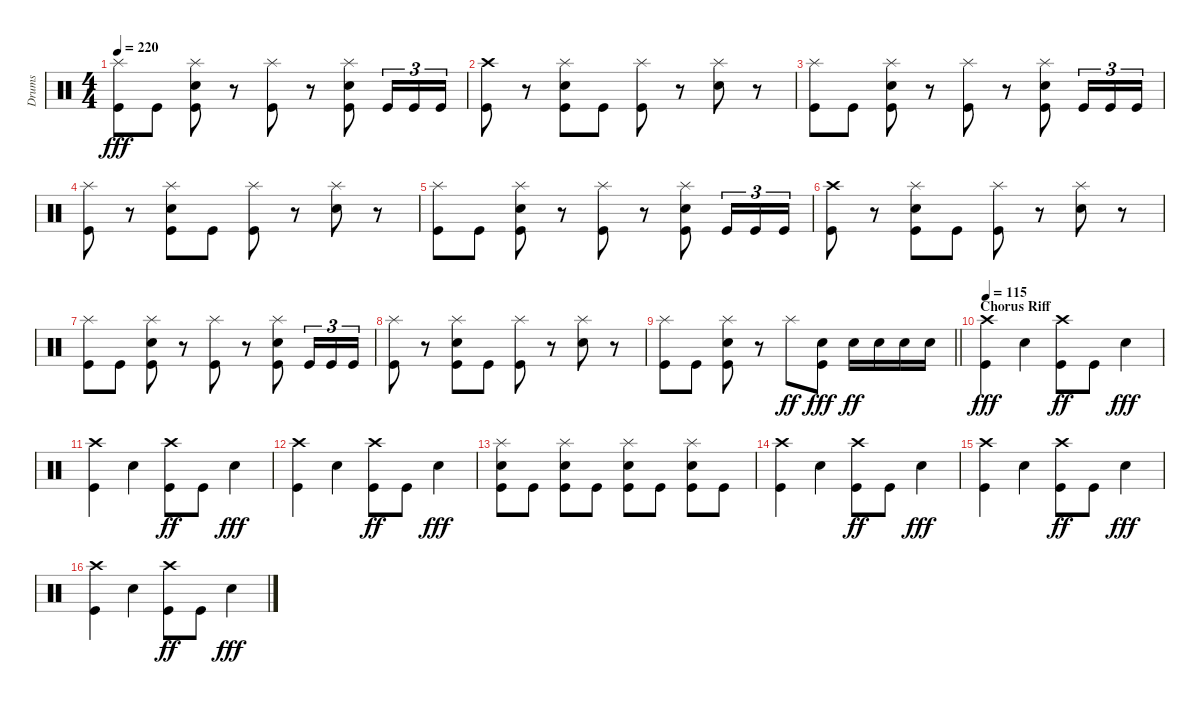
\track ("Drums" "Drums") {instrument percussion}
\staff {score}
\articulation defaults
\ts (4 4)
\tempo 220
\clef neutral
\ks c
("Splash (hit)" "Kick (hit)").8{dy fff} "Kick (hit)".8 ("Splash (hit)" "Electric Snare (hit)" "Kick (hit)").8 r.8 ("Splash (hit)" "Kick (hit)").8 r.8 ("Splash (hit)" "Electric Snare (hit)" "Kick (hit)").8 "Kick (hit)".16{tu (3 2)} "Kick (hit)".16{tu (3 2)} "Kick (hit)".16{tu (3 2)} |
("Crash high (hit)" "Kick (hit)").8 r.8 ("Splash (hit)" "Electric Snare (hit)" "Kick (hit)").8 "Kick (hit)".8 ("Splash (hit)" "Kick (hit)").8 r.8 ("Splash (hit)" "Electric Snare (hit)").8 r.8 |
("Splash (hit)" "Kick (hit)").8 "Kick (hit)".8 ("Splash (hit)" "Electric Snare (hit)" "Kick (hit)").8 r.8 ("Splash (hit)" "Kick (hit)").8 r.8 ("Splash (hit)" "Electric Snare (hit)" "Kick (hit)").8 "Kick (hit)".16{tu (3 2)} "Kick (hit)".16{tu (3 2)} "Kick (hit)".16{tu (3 2)} |
("Splash (hit)" "Kick (hit)").8 r.8 ("Splash (hit)" "Electric Snare (hit)" "Kick (hit)").8 "Kick (hit)".8 ("Splash (hit)" "Kick (hit)").8 r.8 ("Splash (hit)" "Electric Snare (hit)").8 r.8 |
("Splash (hit)" "Kick (hit)").8 "Kick (hit)".8 ("Splash (hit)" "Electric Snare (hit)" "Kick (hit)").8 r.8 ("Splash (hit)" "Kick (hit)").8 r.8 ("Splash (hit)" "Electric Snare (hit)" "Kick (hit)").8 "Kick (hit)".16{tu (3 2)} "Kick (hit)".16{tu (3 2)} "Kick (hit)".16{tu (3 2)} |
("Crash high (hit)" "Kick (hit)").8 r.8 ("Splash (hit)" "Electric Snare (hit)" "Kick (hit)").8 "Kick (hit)".8 ("Splash (hit)" "Kick (hit)").8 r.8 ("Splash (hit)" "Electric Snare (hit)").8 r.8 |
("Splash (hit)" "Kick (hit)").8 "Kick (hit)".8 ("Splash (hit)" "Electric Snare (hit)" "Kick (hit)").8 r.8 ("Splash (hit)" "Kick (hit)").8 r.8 ("Splash (hit)" "Electric Snare (hit)" "Kick (hit)").8 "Kick (hit)".16{tu (3 2)} "Kick (hit)".16{tu (3 2)} "Kick (hit)".16{tu (3 2)} |
("Splash (hit)" "Kick (hit)").8 r.8 ("Splash (hit)" "Electric Snare (hit)" "Kick (hit)").8 "Kick (hit)".8 ("Splash (hit)" "Kick (hit)").8 r.8 ("Splash (hit)" "Electric Snare (hit)").8 r.8 |
\barLineRight lightlight
("Splash (hit)" "Kick (hit)").8 "Kick (hit)".8 ("Splash (hit)" "Electric Snare (hit)" "Kick (hit)").8 r.8 "Splash (hit)".8{dy ff} ("Electric Snare (hit)" "Kick (hit)").8{dy fff} "Electric Snare (hit)".16{dy ff} "Electric Snare (hit)".16 "Electric Snare (hit)".16 "Electric Snare (hit)".16 |
\section ("" "Chorus Riff")
\tempo 115
("Crash high (hit)" "Kick (hit)").4{dy fff} "Electric Snare (hit)".4 ("Crash high (hit)" "Kick (hit)").8{dy ff} "Kick (hit)".8 "Electric Snare (hit)".4{dy fff} |
("Crash high (hit)" "Kick (hit)").4 "Electric Snare (hit)".4 ("Crash high (hit)" "Kick (hit)").8{dy ff} "Kick (hit)".8 "Electric Snare (hit)".4{dy fff} |
("Crash high (hit)" "Kick (hit)").4 "Electric Snare (hit)".4 ("Crash high (hit)" "Kick (hit)").8{dy ff} "Kick (hit)".8 "Electric Snare (hit)".4{dy fff} |
("Splash (hit)" "Electric Snare (hit)" "Kick (hit)").8 "Kick (hit)".8 ("Splash (hit)" "Electric Snare (hit)" "Kick (hit)").8 "Kick (hit)".8 ("Splash (hit)" "Electric Snare (hit)" "Kick (hit)").8 "Kick (hit)".8 ("Splash (hit)" "Electric Snare (hit)" "Kick (hit)").8 "Kick (hit)".8 |
("Crash high (hit)" "Kick (hit)").4 "Electric Snare (hit)".4 ("Crash high (hit)" "Kick (hit)").8{dy ff} "Kick (hit)".8 "Electric Snare (hit)".4{dy fff} |
("Crash high (hit)" "Kick (hit)").4 "Electric Snare (hit)".4 ("Crash high (hit)" "Kick (hit)").8{dy ff} "Kick (hit)".8 "Electric Snare (hit)".4{dy fff} |
("Crash high (hit)" "Kick (hit)").4 "Electric Snare (hit)".4 ("Crash high (hit)" "Kick (hit)").8{dy ff} "Kick (hit)".8 "Electric Snare (hit)".4{dy fff}
